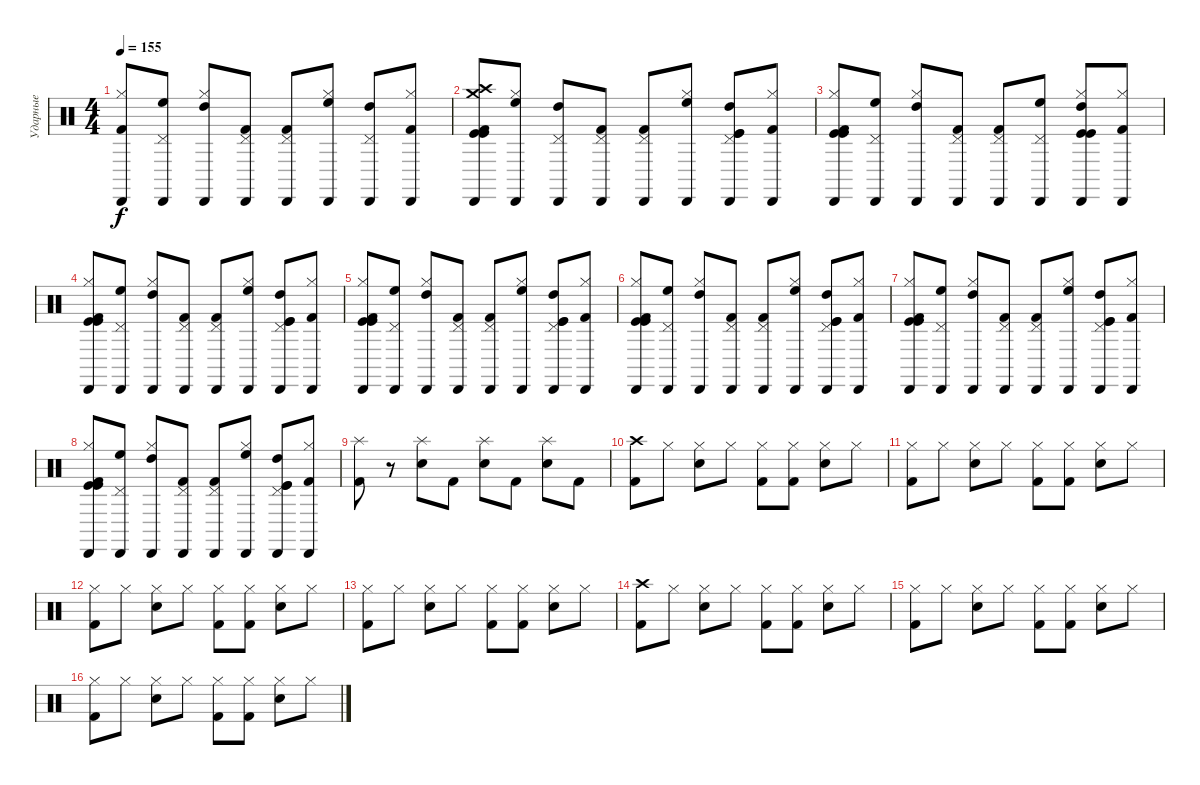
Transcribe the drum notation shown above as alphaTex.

\track ("Ударные" "Ударные") {instrument percussion}
\staff {score}
\articulation defaults
\ts (4 4)
\tempo 155
\clef neutral
\ks c
("Cabasa (hit)" "Hi-Hat (closed)" "Kick (hit) 2").8{dy f} ("Cabasa (hit)" "Pedal Hi-Hat (hit)" "High Floor Tom (hit)").8 ("Cabasa (hit)" "Hi-Hat (closed)" "High Tom (hit)").8 ("Cabasa (hit)" "Pedal Hi-Hat (hit)" "Kick (hit) 2").8 ("Cabasa (hit)" "Pedal Hi-Hat (hit)" "Kick (hit) 2").8 ("Cabasa (hit)" "Hi-Hat (closed)" "High Floor Tom (hit)").8 ("Cabasa (hit)" "Pedal Hi-Hat (hit)" "High Tom (hit)").8 ("Cabasa (hit)" "Hi-Hat (closed)" "Kick (hit) 2").8 |
("Cabasa (hit)" "Crash high (hit)" "Crash medium (hit)" "Kick (hit)" "Kick (hit)" "Kick (hit) 2").8{volume 10} ("Cabasa (hit)" "Hi-Hat (closed)" "High Floor Tom (hit)").8 ("Cabasa (hit)" "Pedal Hi-Hat (hit)" "High Tom (hit)").8 ("Cabasa (hit)" "Pedal Hi-Hat (hit)" "Kick (hit) 2").8 ("Cabasa (hit)" "Pedal Hi-Hat (hit)" "Kick (hit) 2").8 ("Cabasa (hit)" "Hi-Hat (closed)" "High Floor Tom (hit)").8 ("Cabasa (hit)" "Pedal Hi-Hat (hit)" "High Tom (hit)" "Kick (hit)" "Kick (hit)").8 ("Cabasa (hit)" "Hi-Hat (closed)" "Kick (hit) 2").8 |
("Cabasa (hit)" "Hi-Hat (closed)" "Kick (hit)" "Kick (hit)" "Kick (hit) 2").8 ("Cabasa (hit)" "Pedal Hi-Hat (hit)" "High Floor Tom (hit)").8 ("Cabasa (hit)" "Hi-Hat (closed)" "High Tom (hit)").8 ("Cabasa (hit)" "Pedal Hi-Hat (hit)" "Kick (hit) 2").8 ("Cabasa (hit)" "Pedal Hi-Hat (hit)" "Kick (hit) 2").8 ("Cabasa (hit)" "Pedal Hi-Hat (hit)" "High Floor Tom (hit)").8 ("Cabasa (hit)" "Hi-Hat (closed)" "High Tom (hit)" "Kick (hit)" "Kick (hit)").8 ("Cabasa (hit)" "Hi-Hat (closed)" "Kick (hit) 2").8 |
("Cabasa (hit)" "Hi-Hat (closed)" "Kick (hit)" "Kick (hit)" "Kick (hit) 2").8 ("Cabasa (hit)" "Pedal Hi-Hat (hit)" "High Floor Tom (hit)").8 ("Cabasa (hit)" "Hi-Hat (closed)" "High Tom (hit)").8 ("Cabasa (hit)" "Pedal Hi-Hat (hit)" "Kick (hit) 2").8 ("Cabasa (hit)" "Pedal Hi-Hat (hit)" "Kick (hit) 2").8 ("Cabasa (hit)" "Hi-Hat (closed)" "High Floor Tom (hit)").8 ("Cabasa (hit)" "Pedal Hi-Hat (hit)" "High Tom (hit)" "Kick (hit)" "Kick (hit)").8 ("Cabasa (hit)" "Hi-Hat (closed)" "Kick (hit) 2").8 |
("Cabasa (hit)" "Hi-Hat (closed)" "Kick (hit)" "Kick (hit)" "Kick (hit) 2").8 ("Cabasa (hit)" "Pedal Hi-Hat (hit)" "High Floor Tom (hit)").8 ("Cabasa (hit)" "Hi-Hat (closed)" "High Tom (hit)").8 ("Cabasa (hit)" "Pedal Hi-Hat (hit)" "Kick (hit) 2").8 ("Cabasa (hit)" "Pedal Hi-Hat (hit)" "Kick (hit) 2").8 ("Cabasa (hit)" "Hi-Hat (closed)" "High Floor Tom (hit)").8 ("Cabasa (hit)" "Pedal Hi-Hat (hit)" "High Tom (hit)" "Kick (hit)" "Kick (hit)").8 ("Cabasa (hit)" "Hi-Hat (closed)" "Kick (hit) 2").8 |
("Cabasa (hit)" "Hi-Hat (closed)" "Kick (hit)" "Kick (hit)" "Kick (hit) 2").8 ("Cabasa (hit)" "Pedal Hi-Hat (hit)" "High Floor Tom (hit)").8 ("Cabasa (hit)" "Hi-Hat (closed)" "High Tom (hit)").8 ("Cabasa (hit)" "Pedal Hi-Hat (hit)" "Kick (hit) 2").8 ("Cabasa (hit)" "Pedal Hi-Hat (hit)" "Kick (hit) 2").8 ("Cabasa (hit)" "Hi-Hat (closed)" "High Floor Tom (hit)").8 ("Cabasa (hit)" "Pedal Hi-Hat (hit)" "High Tom (hit)" "Kick (hit)" "Kick (hit)").8 ("Cabasa (hit)" "Hi-Hat (closed)" "Kick (hit) 2").8 |
("Cabasa (hit)" "Hi-Hat (closed)" "Kick (hit)" "Kick (hit)" "Kick (hit) 2").8 ("Cabasa (hit)" "Pedal Hi-Hat (hit)" "High Floor Tom (hit)").8 ("Cabasa (hit)" "Hi-Hat (closed)" "High Tom (hit)").8 ("Cabasa (hit)" "Pedal Hi-Hat (hit)" "Kick (hit) 2").8 ("Cabasa (hit)" "Pedal Hi-Hat (hit)" "Kick (hit) 2").8 ("Cabasa (hit)" "Hi-Hat (closed)" "High Floor Tom (hit)").8 ("Cabasa (hit)" "Pedal Hi-Hat (hit)" "High Tom (hit)" "Kick (hit)" "Kick (hit)").8 ("Cabasa (hit)" "Hi-Hat (closed)" "Kick (hit) 2").8 |
("Cabasa (hit)" "Hi-Hat (closed)" "Kick (hit)" "Kick (hit)" "Kick (hit) 2").8 ("Cabasa (hit)" "Pedal Hi-Hat (hit)" "High Floor Tom (hit)").8 ("Cabasa (hit)" "Hi-Hat (closed)" "High Tom (hit)").8 ("Cabasa (hit)" "Pedal Hi-Hat (hit)" "Kick (hit) 2").8 ("Cabasa (hit)" "Pedal Hi-Hat (hit)" "Kick (hit) 2").8 ("Cabasa (hit)" "Hi-Hat (closed)" "High Floor Tom (hit)").8 ("Cabasa (hit)" "Pedal Hi-Hat (hit)" "High Tom (hit)" "Kick (hit)" "Kick (hit)").8 ("Cabasa (hit)" "Hi-Hat (closed)" "Kick (hit) 2").8 |
("Splash (hit)" "Kick (hit) 2").8{volume 14} r.8 ("Splash (hit)" "Electric Snare (hit)").8 "Kick (hit) 2".8 ("Splash (hit)" "Electric Snare (hit)").8 "Kick (hit) 2".8 ("Splash (hit)" "Electric Snare (hit)").8 "Kick (hit) 2".8 |
("Crash high (hit)" "Kick (hit) 2").8 "Hi-Hat (closed)".8 ("Hi-Hat (closed)" "Electric Snare (hit)").8 "Hi-Hat (closed)".8 ("Hi-Hat (closed)" "Kick (hit) 2").8 ("Hi-Hat (closed)" "Kick (hit) 2").8 ("Hi-Hat (closed)" "Electric Snare (hit)").8 "Hi-Hat (closed)".8 |
("Hi-Hat (closed)" "Kick (hit) 2").8 "Hi-Hat (closed)".8 ("Hi-Hat (closed)" "Electric Snare (hit)").8 "Hi-Hat (closed)".8 ("Hi-Hat (closed)" "Kick (hit) 2").8 ("Hi-Hat (closed)" "Kick (hit) 2").8 ("Hi-Hat (closed)" "Electric Snare (hit)").8 "Hi-Hat (closed)".8 |
("Hi-Hat (closed)" "Kick (hit) 2").8 "Hi-Hat (closed)".8 ("Hi-Hat (closed)" "Electric Snare (hit)").8 "Hi-Hat (closed)".8 ("Hi-Hat (closed)" "Kick (hit) 2").8 ("Hi-Hat (closed)" "Kick (hit) 2").8 ("Hi-Hat (closed)" "Electric Snare (hit)").8 "Hi-Hat (closed)".8 |
("Hi-Hat (closed)" "Kick (hit) 2").8 "Hi-Hat (closed)".8 ("Hi-Hat (closed)" "Electric Snare (hit)").8 "Hi-Hat (closed)".8 ("Hi-Hat (closed)" "Kick (hit) 2").8 ("Hi-Hat (closed)" "Kick (hit) 2").8 ("Hi-Hat (closed)" "Electric Snare (hit)").8 "Hi-Hat (closed)".8 |
("Crash high (hit)" "Kick (hit) 2").8 "Hi-Hat (closed)".8 ("Hi-Hat (closed)" "Electric Snare (hit)").8 "Hi-Hat (closed)".8 ("Hi-Hat (closed)" "Kick (hit) 2").8 ("Hi-Hat (closed)" "Kick (hit) 2").8 ("Hi-Hat (closed)" "Electric Snare (hit)").8 "Hi-Hat (closed)".8 |
("Hi-Hat (closed)" "Kick (hit) 2").8 "Hi-Hat (closed)".8 ("Hi-Hat (closed)" "Electric Snare (hit)").8 "Hi-Hat (closed)".8 ("Hi-Hat (closed)" "Kick (hit) 2").8 ("Hi-Hat (closed)" "Kick (hit) 2").8 ("Hi-Hat (closed)" "Electric Snare (hit)").8 "Hi-Hat (closed)".8 |
("Hi-Hat (closed)" "Kick (hit) 2").8 "Hi-Hat (closed)".8 ("Hi-Hat (closed)" "Electric Snare (hit)").8 "Hi-Hat (closed)".8 ("Hi-Hat (closed)" "Kick (hit) 2").8 ("Hi-Hat (closed)" "Kick (hit) 2").8 ("Hi-Hat (closed)" "Electric Snare (hit)").8 "Hi-Hat (closed)".8
